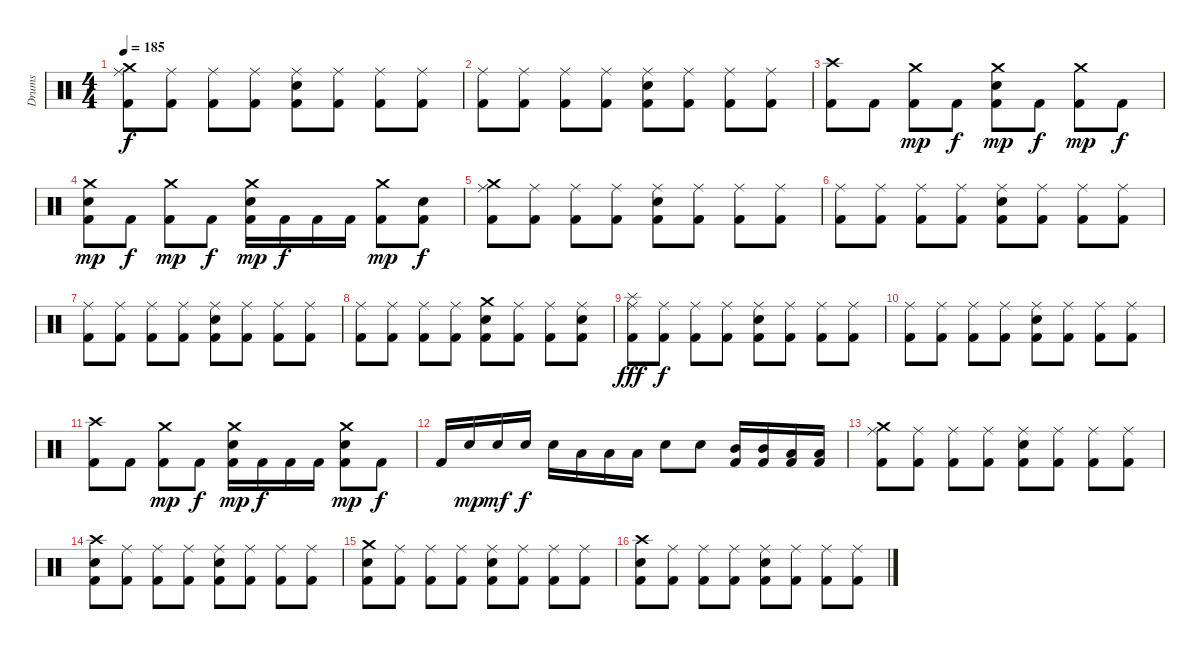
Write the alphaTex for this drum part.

\track ("Drums" "Drums") {instrument percussion}
\staff {score}
\articulation defaults
\ts (4 4)
\tempo 185
\clef neutral
\ks c
("Crash medium (hit)" "Ride (middle)" "Kick (hit) 2").8{dy f} ("Ride (middle)" "Kick (hit) 2").8 ("Ride (middle)" "Kick (hit) 2").8 ("Ride (middle)" "Kick (hit) 2").8 ("Ride (middle)" "Electric Snare (hit)" "Kick (hit) 2").8 ("Ride (middle)" "Kick (hit) 2").8 ("Ride (middle)" "Kick (hit) 2").8 ("Ride (middle)" "Kick (hit) 2").8 |
("Ride (middle)" "Kick (hit) 2").8 ("Ride (middle)" "Kick (hit) 2").8 ("Ride (middle)" "Kick (hit) 2").8 ("Ride (middle)" "Kick (hit) 2").8 ("Ride (middle)" "Electric Snare (hit)" "Kick (hit) 2").8 ("Ride (middle)" "Kick (hit) 2").8 ("Ride (middle)" "Kick (hit) 2").8 ("Ride (middle)" "Kick (hit) 2").8 |
("Crash high (hit)" "Kick (hit) 2").8 "Kick (hit) 2".8 ("Crash medium (hit)" "Kick (hit) 2").8{dy mp} "Kick (hit) 2".8{dy f} ("Crash medium (hit)" "Electric Snare (hit)" "Kick (hit) 2").8{dy mp} "Kick (hit) 2".8{dy f} ("Crash medium (hit)" "Kick (hit) 2").8{dy mp} "Kick (hit) 2".8{dy f} |
("Crash medium (hit)" "Electric Snare (hit)" "Kick (hit) 2").8{dy mp} "Kick (hit) 2".8{dy f} ("Crash medium (hit)" "Kick (hit) 2").8{dy mp} "Kick (hit) 2".8{dy f} ("Crash medium (hit)" "Electric Snare (hit)" "Kick (hit) 2").16{dy mp} "Kick (hit) 2".16{dy f} "Kick (hit) 2".16 "Kick (hit) 2".16 ("Crash medium (hit)" "Kick (hit) 2").8{dy mp} ("Electric Snare (hit)" "Kick (hit) 2").8{dy f} |
("Crash medium (hit)" "Ride (middle)" "Kick (hit) 2").8 ("Ride (middle)" "Kick (hit) 2").8 ("Ride (middle)" "Kick (hit) 2").8 ("Ride (middle)" "Kick (hit) 2").8 ("Ride (middle)" "Electric Snare (hit)" "Kick (hit) 2").8 ("Ride (middle)" "Kick (hit) 2").8 ("Ride (middle)" "Kick (hit) 2").8 ("Ride (middle)" "Kick (hit) 2").8 |
("Ride (middle)" "Kick (hit) 2").8 ("Ride (middle)" "Kick (hit) 2").8 ("Ride (middle)" "Kick (hit) 2").8 ("Ride (middle)" "Kick (hit) 2").8 ("Ride (middle)" "Electric Snare (hit)" "Kick (hit) 2").8 ("Ride (middle)" "Kick (hit) 2").8 ("Ride (middle)" "Kick (hit) 2").8 ("Ride (middle)" "Kick (hit) 2").8 |
("Ride (middle)" "Kick (hit) 2").8 ("Ride (middle)" "Kick (hit) 2").8 ("Ride (middle)" "Kick (hit) 2").8 ("Ride (middle)" "Kick (hit) 2").8 ("Ride (middle)" "Electric Snare (hit)" "Kick (hit) 2").8 ("Ride (middle)" "Kick (hit) 2").8 ("Ride (middle)" "Kick (hit) 2").8 ("Ride (middle)" "Kick (hit) 2").8 |
("Ride (middle)" "Kick (hit) 2").8 ("Ride (middle)" "Kick (hit) 2").8 ("Ride (middle)" "Kick (hit) 2").8 ("Ride (middle)" "Kick (hit) 2").8 ("Crash medium (hit)" "Electric Snare (hit)" "Kick (hit) 2").8 ("Ride (middle)" "Kick (hit) 2").8 ("Ride (middle)" "Kick (hit) 2").8 ("Ride (middle)" "Electric Snare (hit)" "Kick (hit) 2").8 |
("Splash (hit)" "Ride (middle)" "Kick (hit) 2").8{dy fff} ("Ride (middle)" "Kick (hit) 2").8{dy f} ("Ride (middle)" "Kick (hit) 2").8 ("Ride (middle)" "Kick (hit) 2").8 ("Ride (middle)" "Electric Snare (hit)" "Kick (hit) 2").8 ("Ride (middle)" "Kick (hit) 2").8 ("Ride (middle)" "Kick (hit) 2").8 ("Ride (middle)" "Kick (hit) 2").8 |
("Ride (middle)" "Kick (hit) 2").8 ("Ride (middle)" "Kick (hit) 2").8 ("Ride (middle)" "Kick (hit) 2").8 ("Ride (middle)" "Kick (hit) 2").8 ("Ride (middle)" "Electric Snare (hit)" "Kick (hit) 2").8 ("Ride (middle)" "Kick (hit) 2").8 ("Ride (middle)" "Kick (hit) 2").8 ("Ride (middle)" "Kick (hit) 2").8 |
("Crash high (hit)" "Kick (hit) 2").8 "Kick (hit) 2".8 ("Crash medium (hit)" "Kick (hit) 2").8{dy mp} "Kick (hit) 2".8{dy f} ("Crash medium (hit)" "Electric Snare (hit)" "Kick (hit) 2").16{dy mp} "Kick (hit) 2".16{dy f} "Kick (hit) 2".16 "Kick (hit) 2".16 ("Crash medium (hit)" "Electric Snare (hit)" "Kick (hit) 2").8{dy mp} "Kick (hit) 2".8{dy f} |
"Kick (hit) 2".16 "Electric Snare (hit)".16{dy mp} "Electric Snare (hit)".16{dy mf} "Electric Snare (hit)".16{dy f} "Electric Snare (hit)".16 "Low Tom (hit)".16 "Low Tom (hit)".16 "Low Tom (hit)".16 "Electric Snare (hit)".8 "Electric Snare (hit)".8 ("Mid Tom (hit)" "Kick (hit) 2").16 ("Mid Tom (hit)" "Kick (hit) 2").16 ("Low Tom (hit)" "Kick (hit) 2").16 ("Low Tom (hit)" "Kick (hit) 2").16 |
("Crash medium (hit)" "Ride (middle)" "Kick (hit) 2").8 ("Ride (middle)" "Kick (hit) 2").8 ("Ride (middle)" "Kick (hit) 2").8 ("Ride (middle)" "Kick (hit) 2").8 ("Ride (middle)" "Electric Snare (hit)" "Kick (hit) 2").8 ("Ride (middle)" "Kick (hit) 2").8 ("Ride (middle)" "Kick (hit) 2").8 ("Ride (middle)" "Kick (hit) 2").8 |
("Crash high (hit)" "Electric Snare (hit)" "Kick (hit) 2").8 ("Ride (middle)" "Kick (hit) 2").8 ("Ride (middle)" "Kick (hit) 2").8 ("Ride (middle)" "Kick (hit) 2").8 ("Ride (middle)" "Electric Snare (hit)" "Kick (hit) 2").8 ("Ride (middle)" "Kick (hit) 2").8 ("Ride (middle)" "Kick (hit) 2").8 ("Ride (middle)" "Kick (hit) 2").8 |
("Crash medium (hit)" "Electric Snare (hit)" "Kick (hit) 2").8 ("Ride (middle)" "Kick (hit) 2").8 ("Ride (middle)" "Kick (hit) 2").8 ("Ride (middle)" "Kick (hit) 2").8 ("Ride (middle)" "Electric Snare (hit)" "Kick (hit) 2").8 ("Ride (middle)" "Kick (hit) 2").8 ("Ride (middle)" "Kick (hit) 2").8 ("Ride (middle)" "Kick (hit) 2").8 |
("Crash high (hit)" "Electric Snare (hit)" "Kick (hit) 2").8 ("Ride (middle)" "Kick (hit) 2").8 ("Ride (middle)" "Kick (hit) 2").8 ("Ride (middle)" "Kick (hit) 2").8 ("Ride (middle)" "Electric Snare (hit)" "Kick (hit) 2").8 ("Ride (middle)" "Kick (hit) 2").8 ("Ride (middle)" "Kick (hit) 2").8 ("Ride (middle)" "Kick (hit) 2").8
